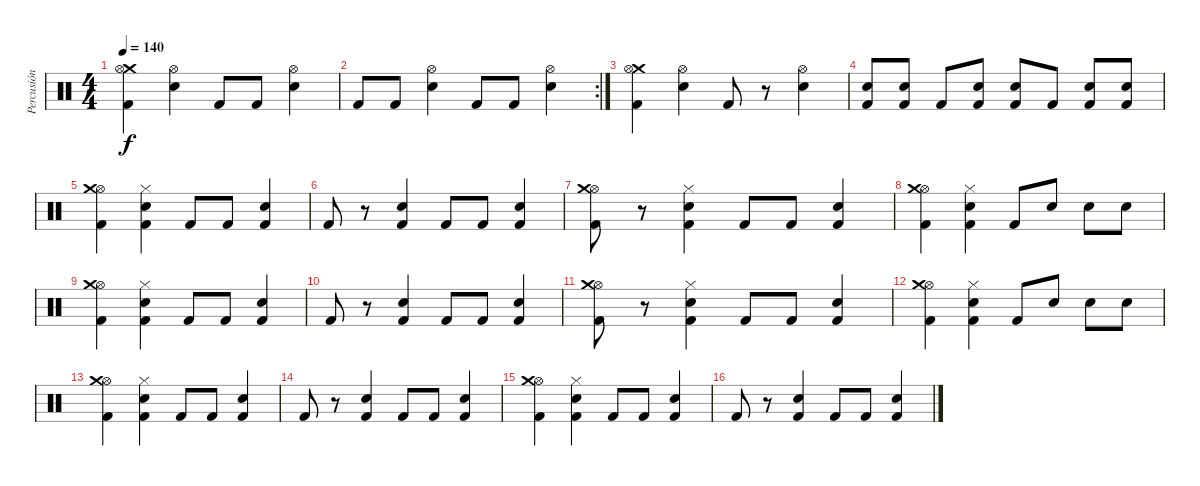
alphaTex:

\track ("Percusión" "Percusión") {instrument percussion}
\staff {score}
\articulation defaults
\ts (4 4)
\tempo 140
\clef neutral
\ks c
("Crash medium (hit)" "Hi-Hat (open)" "Kick (hit) 2").4{dy f} ("Hi-Hat (open)" "Snare (hit) 2").4 "Kick (hit) 2".8 "Kick (hit) 2".8 ("Hi-Hat (open)" "Snare (hit) 2").4 |
\rc 2 "Kick (hit) 2".8 "Kick (hit) 2".8
("Hi-Hat (open)" "Snare (hit) 2").4 "Kick (hit) 2".8 "Kick (hit) 2".8 ("Hi-Hat (open)" "Snare (hit) 2").4 |
("Crash medium (hit)" "Hi-Hat (open)" "Kick (hit) 2").4 ("Hi-Hat (open)" "Snare (hit) 2").4 "Kick (hit) 2".8 r.8 ("Hi-Hat (open)" "Snare (hit) 2").4 |
("Snare (hit) 2" "Kick (hit) 2").8 ("Snare (hit) 2" "Kick (hit) 2").8 "Kick (hit) 2".8 ("Snare (hit) 2" "Kick (hit) 2").8 ("Snare (hit) 2" "Kick (hit) 2").8 "Kick (hit) 2".8 ("Snare (hit) 2" "Kick (hit) 2").8 ("Snare (hit) 2" "Kick (hit) 2").8 |
("Hi-Hat (open)" "Crash medium (hit)" "Kick (hit) 2").4 ("Hi-Hat (closed)" "Snare (hit) 2" "Kick (hit) 2").4 "Kick (hit) 2".8 "Kick (hit) 2".8 ("Snare (hit) 2" "Kick (hit) 2").4 |
"Kick (hit) 2".8 r.8 ("Snare (hit) 2" "Kick (hit) 2").4 "Kick (hit) 2".8 "Kick (hit) 2".8 ("Snare (hit) 2" "Kick (hit) 2").4 |
("Hi-Hat (open)" "Crash medium (hit)" "Kick (hit) 2").8 r.8 ("Hi-Hat (closed)" "Snare (hit) 2" "Kick (hit) 2").4 "Kick (hit) 2".8 "Kick (hit) 2".8 ("Snare (hit) 2" "Kick (hit) 2").4 |
("Hi-Hat (open)" "Crash medium (hit)" "Kick (hit) 2").4 ("Hi-Hat (closed)" "Snare (hit) 2" "Kick (hit) 2").4 "Kick (hit) 2".8 "Snare (hit) 2".8 "Snare (hit) 2".8 "Snare (hit) 2".8 |
("Hi-Hat (open)" "Crash medium (hit)" "Kick (hit) 2").4 ("Hi-Hat (closed)" "Snare (hit) 2" "Kick (hit) 2").4 "Kick (hit) 2".8 "Kick (hit) 2".8 ("Snare (hit) 2" "Kick (hit) 2").4 |
"Kick (hit) 2".8 r.8 ("Snare (hit) 2" "Kick (hit) 2").4 "Kick (hit) 2".8 "Kick (hit) 2".8 ("Snare (hit) 2" "Kick (hit) 2").4 |
("Hi-Hat (open)" "Crash medium (hit)" "Kick (hit) 2").8 r.8 ("Hi-Hat (closed)" "Snare (hit) 2" "Kick (hit) 2").4 "Kick (hit) 2".8 "Kick (hit) 2".8 ("Snare (hit) 2" "Kick (hit) 2").4 |
("Hi-Hat (open)" "Crash medium (hit)" "Kick (hit) 2").4 ("Hi-Hat (closed)" "Snare (hit) 2" "Kick (hit) 2").4 "Kick (hit) 2".8 "Snare (hit) 2".8 "Snare (hit) 2".8 "Snare (hit) 2".8 |
("Hi-Hat (open)" "Crash medium (hit)" "Kick (hit) 2").4 ("Hi-Hat (closed)" "Snare (hit) 2" "Kick (hit) 2").4 "Kick (hit) 2".8 "Kick (hit) 2".8 ("Snare (hit) 2" "Kick (hit) 2").4 |
"Kick (hit) 2".8 r.8 ("Snare (hit) 2" "Kick (hit) 2").4 "Kick (hit) 2".8 "Kick (hit) 2".8 ("Snare (hit) 2" "Kick (hit) 2").4 |
("Hi-Hat (open)" "Crash medium (hit)" "Kick (hit) 2").4 ("Hi-Hat (closed)" "Snare (hit) 2" "Kick (hit) 2").4 "Kick (hit) 2".8 "Kick (hit) 2".8 ("Snare (hit) 2" "Kick (hit) 2").4 |
"Kick (hit) 2".8 r.8 ("Snare (hit) 2" "Kick (hit) 2").4 "Kick (hit) 2".8 "Kick (hit) 2".8 ("Snare (hit) 2" "Kick (hit) 2").4
